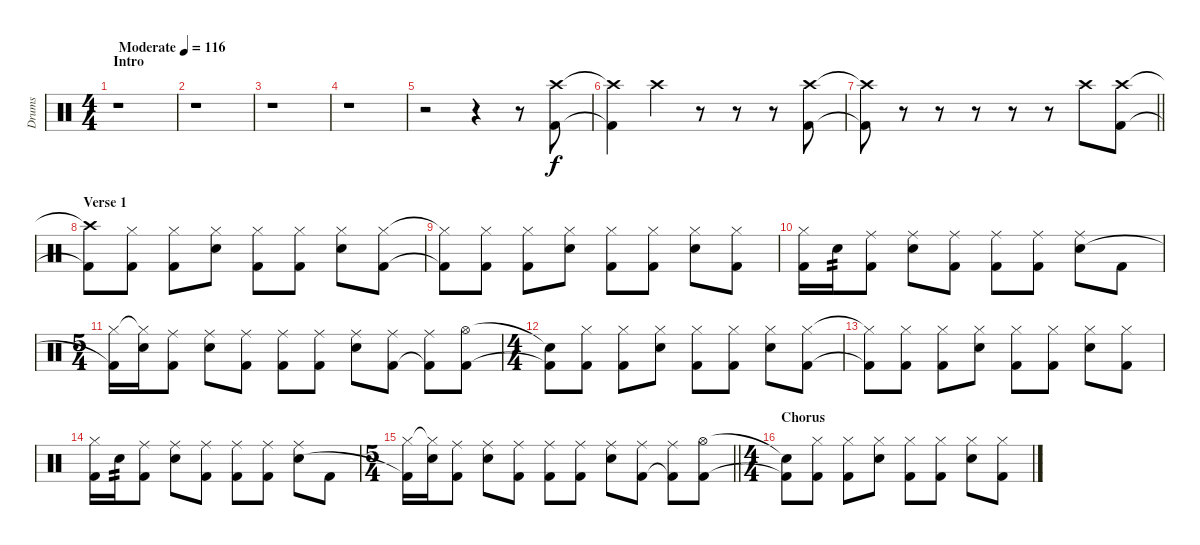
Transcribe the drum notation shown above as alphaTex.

\track ("Drums" "Drums") {instrument percussion}
\staff {score}
\articulation defaults
\ts (4 4)
\section ("" "Intro")
\tempo (116 "Moderate")
\clef neutral
\ks c
r.1{dy f} |
r.1 |
r.1 |
r.1 |
r.2 r.4 r.8 ("Crash high (hit)" "Kick (hit) 2").8 |
("Crash high (hit)"{t} "Kick (hit) 2"{t}).4 "Crash high (hit)".4 r.8 r.8 r.8 ("Crash high (hit)" "Kick (hit) 2").8 |
\barLineRight lightlight
("Crash high (hit)"{t} "Kick (hit) 2"{t}).8 r.8 r.8 r.8 r.8 r.8 "Crash high (hit)".8 ("Crash high (hit)" "Kick (hit) 2").8 |
\section ("" "Verse 1")
("Crash high (hit)"{t} "Kick (hit) 2"{t}).8 ("Hi-Hat (closed)" "Kick (hit) 2").8 ("Hi-Hat (closed)" "Kick (hit) 2").8 ("Hi-Hat (closed)" "Snare (hit) 2").8 ("Hi-Hat (closed)" "Kick (hit) 2").8 ("Hi-Hat (closed)" "Kick (hit) 2").8 ("Hi-Hat (closed)" "Snare (hit) 2").8 ("Hi-Hat (closed)" "Kick (hit) 2").8 |
("Hi-Hat (closed)"{t} "Kick (hit) 2"{t}).8 ("Hi-Hat (closed)" "Kick (hit) 2").8 ("Hi-Hat (closed)" "Kick (hit) 2").8 ("Hi-Hat (closed)" "Snare (hit) 2").8 ("Hi-Hat (closed)" "Kick (hit) 2").8 ("Hi-Hat (closed)" "Kick (hit) 2").8 ("Hi-Hat (closed)" "Snare (hit) 2").8 ("Hi-Hat (closed)" "Kick (hit) 2").8 |
("Hi-Hat (closed)" "Kick (hit) 2").16 "Snare (hit) 2".16{tp 2} ("Ride (middle)" "Kick (hit) 2").8 ("Ride (middle)" "Snare (hit) 2").8 ("Ride (middle)" "Kick (hit) 2").8 ("Ride (middle)" "Kick (hit) 2").8 ("Ride (middle)" "Kick (hit) 2").8 ("Ride (middle)" "Snare (hit) 2").8 "Kick (hit) 2".8 |
\ts (5 4)
("Hi-Hat (closed)" "Kick (hit) 2"{t}).16 ("Hi-Hat (closed)"{t} "Snare (hit) 2").16 ("Ride (middle)" "Kick (hit) 2").8 ("Ride (middle)" "Snare (hit) 2").8 ("Ride (middle)" "Kick (hit) 2").8 ("Ride (middle)" "Kick (hit) 2").8 ("Ride (middle)" "Kick (hit) 2").8 ("Ride (middle)" "Snare (hit) 2").8 ("Ride (middle)" "Kick (hit) 2").8 ("Ride (middle)" "Kick (hit) 2"{t}).8 ("Hi-Hat (open)" "Kick (hit) 2").8 |
\ts (4 4)
("Snare (hit) 2"{t} "Kick (hit) 2"{t}).8 ("Hi-Hat (closed)" "Kick (hit) 2").8 ("Hi-Hat (closed)" "Kick (hit) 2").8 ("Hi-Hat (closed)" "Snare (hit) 2").8 ("Hi-Hat (closed)" "Kick (hit) 2").8 ("Hi-Hat (closed)" "Kick (hit) 2").8 ("Hi-Hat (closed)" "Snare (hit) 2").8 ("Hi-Hat (closed)" "Kick (hit) 2").8 |
("Hi-Hat (closed)"{t} "Kick (hit) 2"{t}).8 ("Hi-Hat (closed)" "Kick (hit) 2").8 ("Hi-Hat (closed)" "Kick (hit) 2").8 ("Hi-Hat (closed)" "Snare (hit) 2").8 ("Hi-Hat (closed)" "Kick (hit) 2").8 ("Hi-Hat (closed)" "Kick (hit) 2").8 ("Hi-Hat (closed)" "Snare (hit) 2").8 ("Hi-Hat (closed)" "Kick (hit) 2").8 |
("Hi-Hat (closed)" "Kick (hit) 2").16 "Snare (hit) 2".16{tp 2} ("Ride (middle)" "Kick (hit) 2").8 ("Ride (middle)" "Snare (hit) 2").8 ("Ride (middle)" "Kick (hit) 2").8 ("Ride (middle)" "Kick (hit) 2").8 ("Ride (middle)" "Kick (hit) 2").8 ("Ride (middle)" "Snare (hit) 2").8 "Kick (hit) 2".8 |
\ts (5 4)
\barLineRight lightlight
("Hi-Hat (closed)" "Kick (hit) 2"{t}).16 ("Hi-Hat (closed)"{t} "Snare (hit) 2").16 ("Ride (middle)" "Kick (hit) 2").8 ("Ride (middle)" "Snare (hit) 2").8 ("Ride (middle)" "Kick (hit) 2").8 ("Ride (middle)" "Kick (hit) 2").8 ("Ride (middle)" "Kick (hit) 2").8 ("Ride (middle)" "Snare (hit) 2").8 ("Ride (middle)" "Kick (hit) 2").8 ("Ride (middle)" "Kick (hit) 2"{t}).8 ("Hi-Hat (open)" "Kick (hit) 2").8 |
\ts (4 4)
\section ("" "Chorus")
("Snare (hit) 2"{t} "Kick (hit) 2"{t}).8 ("Hi-Hat (closed)" "Kick (hit) 2").8 ("Hi-Hat (closed)" "Kick (hit) 2").8 ("Hi-Hat (closed)" "Snare (hit) 2").8 ("Hi-Hat (closed)" "Kick (hit) 2").8 ("Hi-Hat (closed)" "Kick (hit) 2").8 ("Hi-Hat (closed)" "Snare (hit) 2").8 ("Hi-Hat (closed)" "Kick (hit) 2").8
